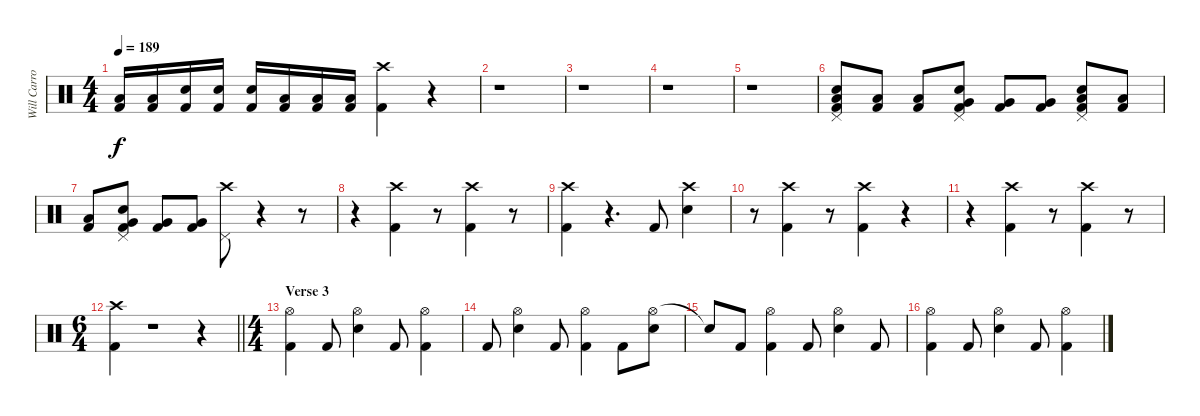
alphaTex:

\track ("Will Carroll" "Will Carro") {instrument percussion}
\staff {score}
\articulation defaults
\ts (4 4)
\tempo 189
\clef neutral
\ks c
("Low Floor Tom (hit)" "Kick (hit) 2").16{dy f} ("Low Floor Tom (hit)" "Kick (hit) 2").16 ("Electric Snare (hit)" "Kick (hit) 2").16 ("Electric Snare (hit)" "Kick (hit) 2").16 ("Electric Snare (hit)" "Kick (hit) 2").16 ("Low Floor Tom (hit)" "Kick (hit) 2").16 ("Low Floor Tom (hit)" "Kick (hit) 2").16 ("Low Floor Tom (hit)" "Kick (hit) 2").16 ("Crash high (hit)" "Kick (hit) 2").4 r.4 |
r.1 |
r.1 |
r.1 |
r.1 |
("Pedal Hi-Hat (hit)" "Low Floor Tom (hit)" "Electric Snare (hit)" "Kick (hit) 2").8 ("Low Floor Tom (hit)" "Kick (hit) 2").8 ("Low Floor Tom (hit)" "Kick (hit) 2").8 ("Pedal Hi-Hat (hit)" "Very Low Tom (hit)" "Electric Snare (hit)" "Kick (hit) 2").8 ("Very Low Tom (hit)" "Kick (hit) 2").8 ("Very Low Tom (hit)" "Kick (hit) 2").8 ("Pedal Hi-Hat (hit)" "Low Floor Tom (hit)" "Electric Snare (hit)" "Kick (hit) 2").8 ("Low Floor Tom (hit)" "Kick (hit) 2").8 |
("Low Floor Tom (hit)" "Kick (hit) 2").8 ("Pedal Hi-Hat (hit)" "Very Low Tom (hit)" "Electric Snare (hit)" "Kick (hit) 2").8 ("Very Low Tom (hit)" "Kick (hit) 2").8 ("Very Low Tom (hit)" "Kick (hit) 2").8 ("Crash high (hit)" "Pedal Hi-Hat (hit)").8 r.4 r.8 |
r.4 ("Crash high (hit)" "Kick (hit) 2").4 r.8 ("Crash high (hit)" "Kick (hit) 2").4 r.8 |
("Crash high (hit)" "Kick (hit) 2").4 r.4{d} "Kick (hit) 2".8 ("Crash high (hit)" "Electric Snare (hit)").4 |
r.8 ("Crash high (hit)" "Kick (hit) 2").4 r.8 ("Crash high (hit)" "Kick (hit) 2").4 r.4 |
r.4 ("Crash high (hit)" "Kick (hit) 2").4 r.8 ("Crash high (hit)" "Kick (hit) 2").4 r.8 |
\ts (6 4)
\barLineRight lightlight
("Crash high (hit)" "Kick (hit) 2").4 r.1 r.4 |
\ts (4 4)
\section ("" "Verse 3")
("Hi-Hat (open)" "Kick (hit) 2").4 "Kick (hit) 2".8 ("Hi-Hat (open)" "Electric Snare (hit)").4 "Kick (hit) 2".8 ("Hi-Hat (open)" "Kick (hit) 2").4 |
"Kick (hit) 2".8 ("Hi-Hat (open)" "Electric Snare (hit)").4 "Kick (hit) 2".8 ("Hi-Hat (open)" "Kick (hit) 2").4 "Kick (hit) 2".8 ("Hi-Hat (open)" "Electric Snare (hit)").8 |
"Snare (hit)"{t}.8 "Kick (hit) 2".8 ("Hi-Hat (open)" "Kick (hit) 2").4 "Kick (hit) 2".8 ("Hi-Hat (open)" "Electric Snare (hit)").4 "Kick (hit) 2".8 |
("Hi-Hat (open)" "Kick (hit) 2").4 "Kick (hit) 2".8 ("Hi-Hat (open)" "Electric Snare (hit)").4 "Kick (hit) 2".8 ("Hi-Hat (open)" "Kick (hit) 2").4
